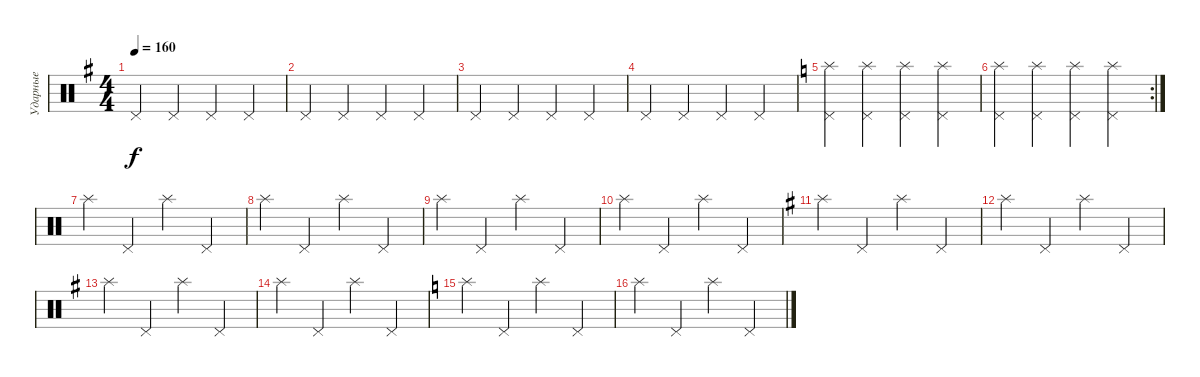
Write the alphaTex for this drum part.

\track ("Ударные" "Ударные") {instrument percussion}
\staff {score}
\articulation defaults
\ts (4 4)
\tempo 160
\clef neutral
\ks g "Pedal Hi-Hat (hit)".4{dy f} "Pedal Hi-Hat (hit)".4 "Pedal Hi-Hat (hit)".4 "Pedal Hi-Hat (hit)".4
|
"Pedal Hi-Hat (hit)".4 "Pedal Hi-Hat (hit)".4 "Pedal Hi-Hat (hit)".4 "Pedal Hi-Hat (hit)".4 |
"Pedal Hi-Hat (hit)".4 "Pedal Hi-Hat (hit)".4 "Pedal Hi-Hat (hit)".4 "Pedal Hi-Hat (hit)".4 |
"Pedal Hi-Hat (hit)".4 "Pedal Hi-Hat (hit)".4 "Pedal Hi-Hat (hit)".4 "Pedal Hi-Hat (hit)".4 |
\ks c
("Pedal Hi-Hat (hit)" "Splash (hit)").4 ("Pedal Hi-Hat (hit)" "Splash (hit)").4 ("Pedal Hi-Hat (hit)" "Splash (hit)").4 ("Pedal Hi-Hat (hit)" "Splash (hit)").4 |
\rc 2
("Pedal Hi-Hat (hit)" "Splash (hit)").4 ("Pedal Hi-Hat (hit)" "Splash (hit)").4 ("Pedal Hi-Hat (hit)" "Splash (hit)").4 ("Pedal Hi-Hat (hit)" "Splash (hit)").4 |
"Splash (hit)".4 "Pedal Hi-Hat (hit)".4 "Splash (hit)".4 "Pedal Hi-Hat (hit)".4 |
"Splash (hit)".4 "Pedal Hi-Hat (hit)".4 "Splash (hit)".4 "Pedal Hi-Hat (hit)".4 |
"Splash (hit)".4 "Pedal Hi-Hat (hit)".4 "Splash (hit)".4 "Pedal Hi-Hat (hit)".4 |
"Splash (hit)".4 "Pedal Hi-Hat (hit)".4 "Splash (hit)".4 "Pedal Hi-Hat (hit)".4 |
\ks g "Splash (hit)".4 "Pedal Hi-Hat (hit)".4 "Splash (hit)".4 "Pedal Hi-Hat (hit)".4
|
"Splash (hit)".4 "Pedal Hi-Hat (hit)".4 "Splash (hit)".4 "Pedal Hi-Hat (hit)".4 |
"Splash (hit)".4 "Pedal Hi-Hat (hit)".4 "Splash (hit)".4 "Pedal Hi-Hat (hit)".4 |
"Splash (hit)".4 "Pedal Hi-Hat (hit)".4 "Splash (hit)".4 "Pedal Hi-Hat (hit)".4 |
\ks c "Splash (hit)".4 "Pedal Hi-Hat (hit)".4 "Splash (hit)".4 "Pedal Hi-Hat (hit)".4
|
"Splash (hit)".4 "Pedal Hi-Hat (hit)".4 "Splash (hit)".4 "Pedal Hi-Hat (hit)".4
